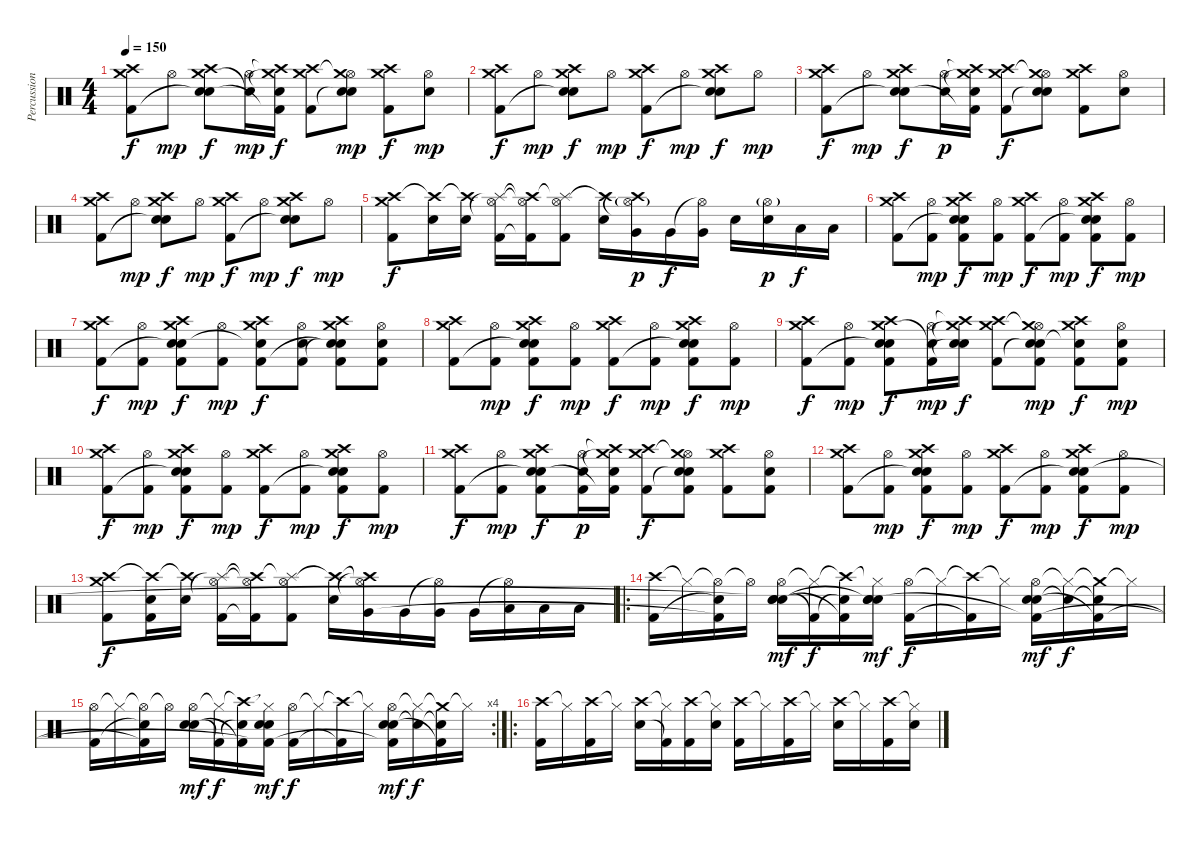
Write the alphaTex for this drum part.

\track ("Percussion" "Percussion") {instrument percussion}
\staff {score}
\articulation defaults
\ts (4 4)
\tempo 150
\clef neutral
\ks c
("Crash high (hit)" "Crash medium (hit)" "Kick (hit) 2").8{dy f} "Hi-Hat (open)".8{dy mp} ("Crash high (hit)" "Crash medium (hit)" "Snare (hit) 2"{t} "Electric Snare (hit)").8{dy f} ("Hi-Hat (open)" "Electric Snare (hit)"{t}).16{dy mp} ("Crash high (hit)"{t} "Crash medium (hit)"{t} "Electric Snare (hit)" "Kick (hit) 2"{t}).16{dy f} ("Crash high (hit)" "Crash medium (hit)" "Kick (hit) 2").8 ("Hi-Hat (open)" "Crash medium (hit)"{t} "Snare (hit) 2"{t} "Electric Snare (hit)").8{dy mp} ("Crash high (hit)" "Crash medium (hit)" "Kick (hit) 2").8{dy f} ("Hi-Hat (open)" "Electric Snare (hit)").8{dy mp} |
("Crash high (hit)" "Crash medium (hit)" "Kick (hit) 2").8{dy f} "Hi-Hat (open)".8{dy mp} ("Crash high (hit)" "Crash medium (hit)" "Snare (hit) 2"{t} "Electric Snare (hit)").8{dy f} "Hi-Hat (open)".8{dy mp} ("Crash high (hit)" "Crash medium (hit)" "Kick (hit) 2").8{dy f} "Hi-Hat (open)".8{dy mp} ("Crash high (hit)" "Crash medium (hit)" "Snare (hit) 2"{t} "Electric Snare (hit)").8{dy f} "Hi-Hat (open)".8{dy mp} |
("Crash high (hit)" "Crash medium (hit)" "Kick (hit) 2").8{dy f} "Hi-Hat (open)".8{dy mp} ("Crash high (hit)" "Crash medium (hit)" "Snare (hit) 2"{t} "Electric Snare (hit)").8{dy f} ("Hi-Hat (open)" "Electric Snare (hit)").16{dy p} ("Crash high (hit)"{t} "Crash medium (hit)"{t} "Electric Snare (hit)" "Kick (hit) 2"{t}).16 ("Crash high (hit)" "Crash medium (hit)" "Kick (hit) 2").8{dy f} ("Hi-Hat (open)" "Crash medium (hit)"{t} "Snare (hit) 2"{t} "Electric Snare (hit)").8 ("Crash high (hit)" "Crash medium (hit)" "Kick (hit) 2").8 ("Hi-Hat (open)" "Electric Snare (hit)").8 |
("Crash high (hit)" "Crash medium (hit)" "Kick (hit) 2").8 "Hi-Hat (open)".8{dy mp} ("Crash high (hit)" "Crash medium (hit)" "Snare (hit) 2"{t} "Electric Snare (hit)").8{dy f} "Hi-Hat (open)".8{dy mp} ("Crash high (hit)" "Crash medium (hit)" "Kick (hit) 2").8{dy f} "Hi-Hat (open)".8{dy mp} ("Crash high (hit)" "Crash medium (hit)" "Snare (hit) 2"{t} "Electric Snare (hit)").8{dy f} "Hi-Hat (open)".8{dy mp} |
("Crash high (hit)" "Crash medium (hit)" "Kick (hit) 2").8{dy f} ("Crash high (hit)"{t} "Electric Snare (hit)").16 ("Crash high (hit)"{t} "Electric Snare (hit)").16 ("Hi-Hat (open)" "Splash (hit)"{t} "Kick (hit) 2").16 ("Hi-Hat (open)"{t} "Crash high (hit)"{t} "Kick (hit) 2"{t}).16 ("Hi-Hat (open)" "Splash (hit)"{t} "Kick (hit) 2").8 ("Crash high (hit)"{t} "Electric Snare (hit)").16 ("Hi-Hat (open)"{g} "Crash high (hit)"{t} "Very Low Tom (hit)").16{dy p} "Very Low Tom (hit)".16{dy f} ("Hi-Hat (open)"{t} "Very Low Tom (hit)").16 "Electric Snare (hit)".16 ("Hi-Hat (open)"{g} "Electric Snare (hit)").16{dy p} "Low Floor Tom (hit)".16{dy f} "Low Floor Tom (hit)".16 |
("Crash high (hit)" "Crash medium (hit)" "Kick (hit) 2").8 ("Hi-Hat (open)" "Kick (hit) 2").8{dy mp} ("Crash high (hit)" "Crash medium (hit)" "Snare (hit) 2"{t} "Electric Snare (hit)" "Kick (hit) 2").8{dy f} ("Hi-Hat (open)" "Kick (hit) 2").8{dy mp} ("Crash high (hit)" "Crash medium (hit)" "Kick (hit) 2").8{dy f} ("Hi-Hat (open)" "Kick (hit) 2").8{dy mp} ("Crash high (hit)" "Crash medium (hit)" "Snare (hit) 2"{t} "Electric Snare (hit)" "Kick (hit) 2").8{dy f} ("Hi-Hat (open)" "Kick (hit) 2").8{dy mp} |
("Crash high (hit)" "Crash medium (hit)" "Kick (hit) 2").8{dy f} ("Hi-Hat (open)" "Kick (hit) 2").8{dy mp} ("Crash high (hit)" "Crash medium (hit)" "Snare (hit) 2"{t} "Electric Snare (hit)" "Kick (hit) 2").8{dy f} ("Hi-Hat (open)" "Kick (hit) 2").8{dy mp} ("Crash high (hit)" "Crash medium (hit)" "Electric Snare (hit)"{t} "Kick (hit) 2").8{dy f} ("Hi-Hat (open)" "Electric Snare (hit)" "Kick (hit) 2").8 ("Crash high (hit)" "Crash medium (hit)" "Snare (hit) 2"{t} "Electric Snare (hit)"{t} "Kick (hit) 2").8 ("Hi-Hat (open)" "Electric Snare (hit)" "Kick (hit) 2").8 |
("Crash high (hit)" "Crash medium (hit)" "Kick (hit) 2").8 ("Hi-Hat (open)" "Kick (hit) 2").8{dy mp} ("Crash high (hit)" "Crash medium (hit)" "Snare (hit) 2"{t} "Electric Snare (hit)" "Kick (hit) 2").8{dy f} ("Hi-Hat (open)" "Kick (hit) 2").8{dy mp} ("Crash high (hit)" "Crash medium (hit)" "Kick (hit) 2").8{dy f} ("Hi-Hat (open)" "Kick (hit) 2").8{dy mp} ("Crash high (hit)" "Crash medium (hit)" "Snare (hit) 2"{t} "Electric Snare (hit)" "Kick (hit) 2").8{dy f} ("Hi-Hat (open)" "Kick (hit) 2").8{dy mp} |
("Crash high (hit)" "Crash medium (hit)" "Kick (hit) 2").8{dy f} ("Hi-Hat (open)" "Kick (hit) 2").8{dy mp} ("Crash high (hit)" "Crash medium (hit)" "Snare (hit) 2"{t} "Electric Snare (hit)" "Kick (hit) 2").8{dy f} ("Hi-Hat (open)" "Electric Snare (hit)"{t} "Kick (hit) 2").16{dy mp} ("Crash high (hit)"{t} "Crash medium (hit)"{t} "Electric Snare (hit)"{t} "Electric Snare (hit)").16{dy f} ("Crash high (hit)" "Crash medium (hit)" "Kick (hit) 2").8 ("Hi-Hat (open)" "Crash medium (hit)"{t} "Snare (hit) 2"{t} "Electric Snare (hit)" "Kick (hit) 2").8{dy mp} ("Crash high (hit)" "Crash medium (hit)" "Electric Snare (hit)"{t} "Kick (hit) 2").8{dy f} ("Hi-Hat (open)" "Electric Snare (hit)" "Kick (hit) 2").8{dy mp} |
("Crash high (hit)" "Crash medium (hit)" "Kick (hit) 2").8{dy f} ("Hi-Hat (open)" "Kick (hit) 2").8{dy mp} ("Crash high (hit)" "Crash medium (hit)" "Snare (hit) 2"{t} "Electric Snare (hit)" "Kick (hit) 2").8{dy f} ("Hi-Hat (open)" "Kick (hit) 2").8{dy mp} ("Crash high (hit)" "Crash medium (hit)" "Kick (hit) 2").8{dy f} ("Hi-Hat (open)" "Kick (hit) 2").8{dy mp} ("Crash high (hit)" "Crash medium (hit)" "Snare (hit) 2"{t} "Electric Snare (hit)" "Kick (hit) 2").8{dy f} ("Hi-Hat (open)" "Kick (hit) 2").8{dy mp} |
("Crash high (hit)" "Crash medium (hit)" "Kick (hit) 2").8{dy f} ("Hi-Hat (open)" "Kick (hit) 2").8{dy mp} ("Crash high (hit)" "Crash medium (hit)" "Snare (hit) 2"{t} "Electric Snare (hit)" "Kick (hit) 2").8{dy f} ("Hi-Hat (open)" "Electric Snare (hit)" "Kick (hit) 2").16{dy p} ("Crash high (hit)"{t} "Crash medium (hit)"{t} "Electric Snare (hit)" "Kick (hit) 2"{t}).16 ("Crash high (hit)" "Crash medium (hit)" "Kick (hit) 2").8{dy f} ("Hi-Hat (open)" "Crash medium (hit)"{t} "Snare (hit) 2"{t} "Electric Snare (hit)" "Kick (hit) 2").8 ("Crash high (hit)" "Crash medium (hit)" "Kick (hit) 2").8 ("Hi-Hat (open)" "Electric Snare (hit)" "Kick (hit) 2").8 |
("Crash high (hit)" "Crash medium (hit)" "Kick (hit) 2").8 ("Hi-Hat (open)" "Kick (hit) 2").8{dy mp} ("Crash high (hit)" "Crash medium (hit)" "Snare (hit) 2"{t} "Electric Snare (hit)" "Kick (hit) 2").8{dy f} ("Hi-Hat (open)" "Kick (hit) 2").8{dy mp} ("Crash high (hit)" "Crash medium (hit)" "Kick (hit) 2").8{dy f} ("Hi-Hat (open)" "Kick (hit) 2").8{dy mp} ("Crash high (hit)" "Crash medium (hit)" "Snare (hit) 2"{t} "Electric Snare (hit)" "Kick (hit) 2").8{dy f} ("Hi-Hat (open)" "Kick (hit) 2").8{dy mp} |
("Crash high (hit)" "Crash medium (hit)" "Kick (hit) 2").8{dy f} ("Crash high (hit)"{t} "Electric Snare (hit)" "Kick (hit) 2").16 ("Crash high (hit)"{t} "Electric Snare (hit)").16 ("Hi-Hat (open)" "Splash (hit)"{t} "Kick (hit) 2").16 ("Hi-Hat (open)"{t} "Crash high (hit)"{t} "Kick (hit) 2"{t}).16 ("Hi-Hat (open)" "Splash (hit)"{t} "Kick (hit) 2").8 ("Crash high (hit)"{t} "Electric Snare (hit)").16 ("Hi-Hat (open)"{t} "Crash high (hit)"{t} "Very Low Tom (hit)").16 "Very Low Tom (hit)".16 ("Hi-Hat (open)"{t} "Very Low Tom (hit)").16 "Very Low Tom (hit)".16 ("Hi-Hat (open)"{t} "Low Floor Tom (hit)").16 "Low Floor Tom (hit)".16 "Low Floor Tom (hit)".16 |
\ro
("Crash high (hit)" "Kick (hit) 2").16 "Hi-Hat (closed)"{t}.16 ("Hi-Hat (open)"{t} "Electric Snare (hit)"{t} "Kick (hit) 2"{t}).16 "Hi-Hat (open)"{t}.16 ("Hi-Hat (open)" "Electric Snare (hit)" "Hand Clap (hit)" "Electric Snare (hit)"{t}).16{dy mf} ("Hi-Hat (closed)"{t} "Kick (hit) 2"{t}).16{dy f} ("Crash high (hit)"{t} "Electric Snare (hit)"{t} "Kick (hit) 2"{t}).16 ("Hi-Hat (closed)"{t} "Electric Snare (hit)" "Hand Clap (hit)" "Electric Snare (hit)"{t}).16{dy mf} ("Hi-Hat (open)" "Kick (hit) 2").16{dy f} "Hi-Hat (closed)"{t}.16 ("Crash high (hit)"{t} "Kick (hit) 2"{t}).16 "Hi-Hat (closed)"{t}.16 ("Hi-Hat (open)" "Electric Snare (hit)" "Hand Clap (hit)" "Kick (hit) 2"{t}).16{dy mf} ("Hi-Hat (closed)"{t} "Electric Snare (hit)"{t}).16{dy f} ("Crash medium (hit)"{t} "Electric Snare (hit)"{t} "Kick (hit) 2"{t}).16 "Hi-Hat (closed)"{t}.16 |
\rc 4
("Hi-Hat (open)" "Kick (hit) 2").16 "Hi-Hat (closed)"{t}.16 ("Hi-Hat (open)"{t} "Electric Snare (hit)"{t} "Kick (hit) 2"{t}).16 "Hi-Hat (open)"{t}.16 ("Hi-Hat (open)" "Electric Snare (hit)" "Hand Clap (hit)").16{dy mf} ("Hi-Hat (closed)"{t} "Kick (hit) 2"{t}).16{dy f} ("Crash high (hit)"{t} "Electric Snare (hit)"{t} "Kick (hit) 2"{t}).16 ("Hi-Hat (closed)"{t} "Electric Snare (hit)" "Hand Clap (hit)" "Kick (hit) 2"{t}).16{dy mf} ("Hi-Hat (open)" "Kick (hit) 2").16{dy f} "Hi-Hat (closed)"{t}.16 ("Crash high (hit)"{t} "Kick (hit) 2"{t}).16 "Hi-Hat (closed)"{t}.16 ("Hi-Hat (open)" "Electric Snare (hit)" "Hand Clap (hit)" "Kick (hit) 2"{t}).16{dy mf} ("Hi-Hat (closed)"{t} "Electric Snare (hit)"{t}).16{dy f} ("Crash medium (hit)"{t} "Electric Snare (hit)"{t} "Kick (hit) 2"{t}).16 "Hi-Hat (closed)"{t}.16 |
\ro
("Crash high (hit)" "Kick (hit) 2").16 "Hi-Hat (closed)"{t}.16 ("Crash high (hit)" "Kick (hit) 2").16 "Hi-Hat (closed)"{t}.16 ("Crash high (hit)" "Electric Snare (hit)").16 ("Hi-Hat (closed)"{t} "Kick (hit) 2"{t}).16 ("Crash high (hit)" "Kick (hit) 2").16 ("Hi-Hat (closed)"{t} "Electric Snare (hit)").16 ("Crash high (hit)" "Kick (hit) 2").16 "Hi-Hat (closed)"{t}.16 ("Crash high (hit)" "Kick (hit) 2").16 "Hi-Hat (closed)"{t}.16 ("Crash high (hit)" "Electric Snare (hit)").16 "Hi-Hat (closed)"{t}.16 ("Crash high (hit)" "Kick (hit) 2").16 ("Hi-Hat (closed)"{t} "Electric Snare (hit)").16
